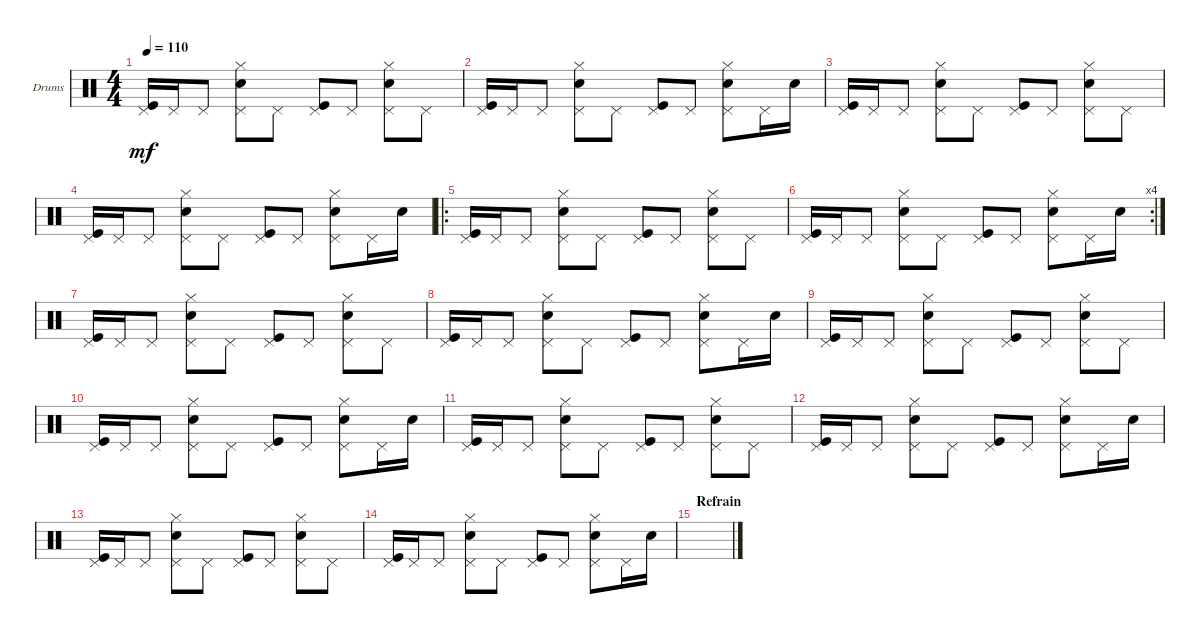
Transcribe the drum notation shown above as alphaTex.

\defaultSystemsLayout 4
\bracketExtendMode groupsimilarinstruments
\firstSystemTrackNameOrientation horizontal
\otherSystemsTrackNameOrientation horizontal
\track ("Drumkit" "Drums") {instrument percussion}
\staff {score}
\articulation defaults
\ts (4 4)
\tempo 110
\clef neutral
\ks c
("Kick (hit)" "Pedal Hi-Hat (hit)").16{dy mf} "Pedal Hi-Hat (hit)".16 "Pedal Hi-Hat (hit)".8 ("Snare (hit) 2" "Hi-Hat (closed)" "Pedal Hi-Hat (hit)").8 "Pedal Hi-Hat (hit)".8 ("Kick (hit)" "Pedal Hi-Hat (hit)").8 "Pedal Hi-Hat (hit)".8 ("Snare (hit) 2" "Hi-Hat (closed)" "Pedal Hi-Hat (hit)").8 "Pedal Hi-Hat (hit)".8 |
("Kick (hit)" "Pedal Hi-Hat (hit)").16 "Pedal Hi-Hat (hit)".16 "Pedal Hi-Hat (hit)".8 ("Snare (hit) 2" "Hi-Hat (closed)" "Pedal Hi-Hat (hit)").8 "Pedal Hi-Hat (hit)".8 ("Kick (hit)" "Pedal Hi-Hat (hit)").8 "Pedal Hi-Hat (hit)".8 ("Snare (hit) 2" "Hi-Hat (closed)" "Pedal Hi-Hat (hit)").8 "Pedal Hi-Hat (hit)".16 "Snare (hit) 2".16 |
("Kick (hit)" "Pedal Hi-Hat (hit)").16 "Pedal Hi-Hat (hit)".16 "Pedal Hi-Hat (hit)".8 ("Snare (hit) 2" "Hi-Hat (closed)" "Pedal Hi-Hat (hit)").8 "Pedal Hi-Hat (hit)".8 ("Kick (hit)" "Pedal Hi-Hat (hit)").8 "Pedal Hi-Hat (hit)".8 ("Snare (hit) 2" "Hi-Hat (closed)" "Pedal Hi-Hat (hit)").8 "Pedal Hi-Hat (hit)".8 |
("Kick (hit)" "Pedal Hi-Hat (hit)").16 "Pedal Hi-Hat (hit)".16 "Pedal Hi-Hat (hit)".8 ("Snare (hit) 2" "Hi-Hat (closed)" "Pedal Hi-Hat (hit)").8 "Pedal Hi-Hat (hit)".8 ("Kick (hit)" "Pedal Hi-Hat (hit)").8 "Pedal Hi-Hat (hit)".8 ("Snare (hit) 2" "Hi-Hat (closed)" "Pedal Hi-Hat (hit)").8 "Pedal Hi-Hat (hit)".16 "Snare (hit) 2".16 |
\ro
("Kick (hit)" "Pedal Hi-Hat (hit)").16 "Pedal Hi-Hat (hit)".16 "Pedal Hi-Hat (hit)".8 ("Snare (hit) 2" "Hi-Hat (closed)" "Pedal Hi-Hat (hit)").8 "Pedal Hi-Hat (hit)".8 ("Kick (hit)" "Pedal Hi-Hat (hit)").8 "Pedal Hi-Hat (hit)".8 ("Snare (hit) 2" "Hi-Hat (closed)" "Pedal Hi-Hat (hit)").8 "Pedal Hi-Hat (hit)".8 |
\rc 4
("Kick (hit)" "Pedal Hi-Hat (hit)").16 "Pedal Hi-Hat (hit)".16 "Pedal Hi-Hat (hit)".8 ("Snare (hit) 2" "Hi-Hat (closed)" "Pedal Hi-Hat (hit)").8 "Pedal Hi-Hat (hit)".8 ("Kick (hit)" "Pedal Hi-Hat (hit)").8 "Pedal Hi-Hat (hit)".8 ("Snare (hit) 2" "Hi-Hat (closed)" "Pedal Hi-Hat (hit)").8 "Pedal Hi-Hat (hit)".16 "Snare (hit) 2".16 |
("Kick (hit)" "Pedal Hi-Hat (hit)").16 "Pedal Hi-Hat (hit)".16 "Pedal Hi-Hat (hit)".8 ("Snare (hit) 2" "Hi-Hat (closed)" "Pedal Hi-Hat (hit)").8 "Pedal Hi-Hat (hit)".8 ("Kick (hit)" "Pedal Hi-Hat (hit)").8 "Pedal Hi-Hat (hit)".8 ("Snare (hit) 2" "Hi-Hat (closed)" "Pedal Hi-Hat (hit)").8 "Pedal Hi-Hat (hit)".8 |
("Kick (hit)" "Pedal Hi-Hat (hit)").16 "Pedal Hi-Hat (hit)".16 "Pedal Hi-Hat (hit)".8 ("Snare (hit) 2" "Hi-Hat (closed)" "Pedal Hi-Hat (hit)").8 "Pedal Hi-Hat (hit)".8 ("Kick (hit)" "Pedal Hi-Hat (hit)").8 "Pedal Hi-Hat (hit)".8 ("Snare (hit) 2" "Hi-Hat (closed)" "Pedal Hi-Hat (hit)").8 "Pedal Hi-Hat (hit)".16 "Snare (hit) 2".16 |
("Kick (hit)" "Pedal Hi-Hat (hit)").16 "Pedal Hi-Hat (hit)".16 "Pedal Hi-Hat (hit)".8 ("Snare (hit) 2" "Hi-Hat (closed)" "Pedal Hi-Hat (hit)").8 "Pedal Hi-Hat (hit)".8 ("Kick (hit)" "Pedal Hi-Hat (hit)").8 "Pedal Hi-Hat (hit)".8 ("Snare (hit) 2" "Hi-Hat (closed)" "Pedal Hi-Hat (hit)").8 "Pedal Hi-Hat (hit)".8 |
("Kick (hit)" "Pedal Hi-Hat (hit)").16 "Pedal Hi-Hat (hit)".16 "Pedal Hi-Hat (hit)".8 ("Snare (hit) 2" "Hi-Hat (closed)" "Pedal Hi-Hat (hit)").8 "Pedal Hi-Hat (hit)".8 ("Kick (hit)" "Pedal Hi-Hat (hit)").8 "Pedal Hi-Hat (hit)".8 ("Snare (hit) 2" "Hi-Hat (closed)" "Pedal Hi-Hat (hit)").8 "Pedal Hi-Hat (hit)".16 "Snare (hit) 2".16 |
("Kick (hit)" "Pedal Hi-Hat (hit)").16 "Pedal Hi-Hat (hit)".16 "Pedal Hi-Hat (hit)".8 ("Snare (hit) 2" "Hi-Hat (closed)" "Pedal Hi-Hat (hit)").8 "Pedal Hi-Hat (hit)".8 ("Kick (hit)" "Pedal Hi-Hat (hit)").8 "Pedal Hi-Hat (hit)".8 ("Snare (hit) 2" "Hi-Hat (closed)" "Pedal Hi-Hat (hit)").8 "Pedal Hi-Hat (hit)".8 |
("Kick (hit)" "Pedal Hi-Hat (hit)").16 "Pedal Hi-Hat (hit)".16 "Pedal Hi-Hat (hit)".8 ("Snare (hit) 2" "Hi-Hat (closed)" "Pedal Hi-Hat (hit)").8 "Pedal Hi-Hat (hit)".8 ("Kick (hit)" "Pedal Hi-Hat (hit)").8 "Pedal Hi-Hat (hit)".8 ("Snare (hit) 2" "Hi-Hat (closed)" "Pedal Hi-Hat (hit)").8 "Pedal Hi-Hat (hit)".16 "Snare (hit) 2".16 |
("Kick (hit)" "Pedal Hi-Hat (hit)").16 "Pedal Hi-Hat (hit)".16 "Pedal Hi-Hat (hit)".8 ("Snare (hit) 2" "Hi-Hat (closed)" "Pedal Hi-Hat (hit)").8 "Pedal Hi-Hat (hit)".8 ("Kick (hit)" "Pedal Hi-Hat (hit)").8 "Pedal Hi-Hat (hit)".8 ("Snare (hit) 2" "Hi-Hat (closed)" "Pedal Hi-Hat (hit)").8 "Pedal Hi-Hat (hit)".8 |
("Kick (hit)" "Pedal Hi-Hat (hit)").16 "Pedal Hi-Hat (hit)".16 "Pedal Hi-Hat (hit)".8 ("Snare (hit) 2" "Hi-Hat (closed)" "Pedal Hi-Hat (hit)").8 "Pedal Hi-Hat (hit)".8 ("Kick (hit)" "Pedal Hi-Hat (hit)").8 "Pedal Hi-Hat (hit)".8 ("Snare (hit) 2" "Hi-Hat (closed)" "Pedal Hi-Hat (hit)").8 "Pedal Hi-Hat (hit)".16 "Snare (hit) 2".16 |
\section ("" "Refrain")
